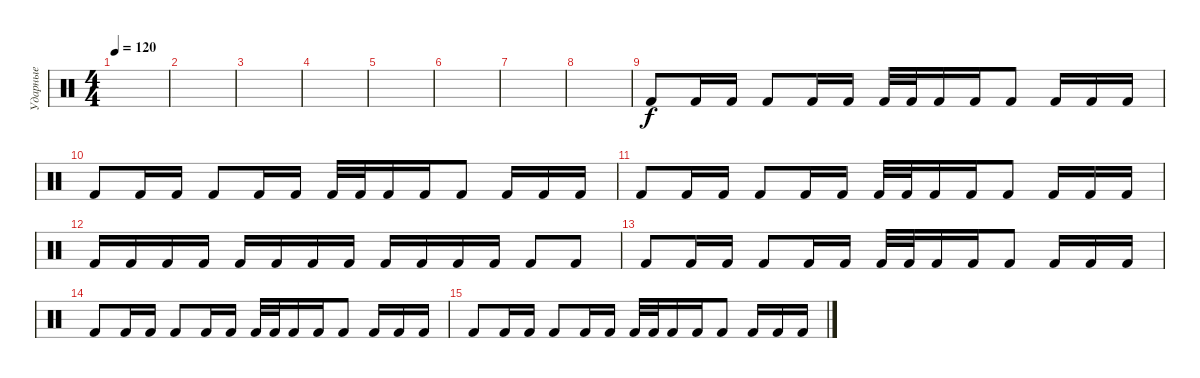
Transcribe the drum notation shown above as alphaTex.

\track ("Ударные" "Ударные") {instrument percussion}
\staff {score}
\articulation defaults
\ts (4 4)
\tempo 120
\clef neutral
\ks c
|
|
|
|
|
|
|
|
"Kick (hit) 2".8 "Kick (hit) 2".16 "Kick (hit) 2".16 "Kick (hit) 2".8 "Kick (hit) 2".16 "Kick (hit) 2".16 "Kick (hit) 2".32 "Kick (hit) 2".32 "Kick (hit) 2".16 "Kick (hit) 2".16 "Kick (hit) 2".8 "Kick (hit) 2".16 "Kick (hit) 2".16 "Kick (hit) 2".16 |
"Kick (hit) 2".8 "Kick (hit) 2".16 "Kick (hit) 2".16 "Kick (hit) 2".8 "Kick (hit) 2".16 "Kick (hit) 2".16 "Kick (hit) 2".32 "Kick (hit) 2".32 "Kick (hit) 2".16 "Kick (hit) 2".16 "Kick (hit) 2".8 "Kick (hit) 2".16 "Kick (hit) 2".16 "Kick (hit) 2".16 |
"Kick (hit) 2".8 "Kick (hit) 2".16 "Kick (hit) 2".16 "Kick (hit) 2".8 "Kick (hit) 2".16 "Kick (hit) 2".16 "Kick (hit) 2".32 "Kick (hit) 2".32 "Kick (hit) 2".16 "Kick (hit) 2".16 "Kick (hit) 2".8 "Kick (hit) 2".16 "Kick (hit) 2".16 "Kick (hit) 2".16 |
"Kick (hit) 2".16 "Kick (hit) 2".16 "Kick (hit) 2".16 "Kick (hit) 2".16 "Kick (hit) 2".16 "Kick (hit) 2".16 "Kick (hit) 2".16 "Kick (hit) 2".16 "Kick (hit) 2".16 "Kick (hit) 2".16 "Kick (hit) 2".16 "Kick (hit) 2".16 "Kick (hit) 2".8 "Kick (hit) 2".8 |
"Kick (hit) 2".8 "Kick (hit) 2".16 "Kick (hit) 2".16 "Kick (hit) 2".8 "Kick (hit) 2".16 "Kick (hit) 2".16 "Kick (hit) 2".32 "Kick (hit) 2".32 "Kick (hit) 2".16 "Kick (hit) 2".16 "Kick (hit) 2".8 "Kick (hit) 2".16 "Kick (hit) 2".16 "Kick (hit) 2".16 |
"Kick (hit) 2".8 "Kick (hit) 2".16 "Kick (hit) 2".16 "Kick (hit) 2".8 "Kick (hit) 2".16 "Kick (hit) 2".16 "Kick (hit) 2".32 "Kick (hit) 2".32 "Kick (hit) 2".16 "Kick (hit) 2".16 "Kick (hit) 2".8 "Kick (hit) 2".16 "Kick (hit) 2".16 "Kick (hit) 2".16 |
"Kick (hit) 2".8 "Kick (hit) 2".16 "Kick (hit) 2".16 "Kick (hit) 2".8 "Kick (hit) 2".16 "Kick (hit) 2".16 "Kick (hit) 2".32 "Kick (hit) 2".32 "Kick (hit) 2".16 "Kick (hit) 2".16 "Kick (hit) 2".8 "Kick (hit) 2".16 "Kick (hit) 2".16 "Kick (hit) 2".16
